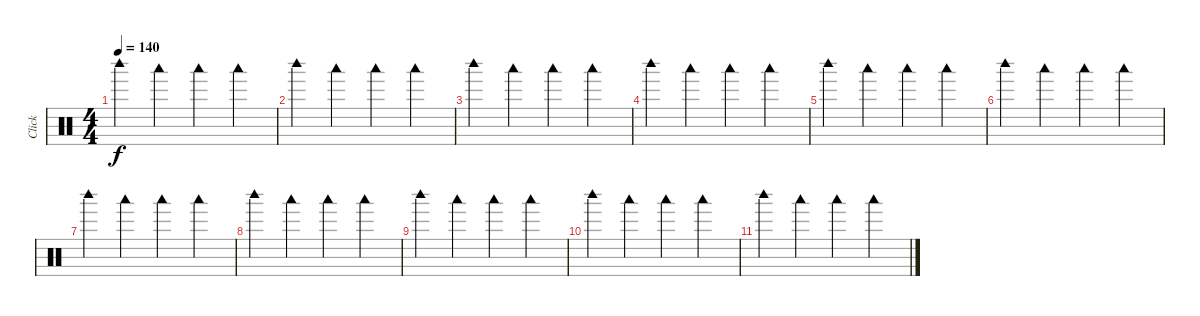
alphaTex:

\track ("Click" "Click") {mute instrument percussion}
\staff {score}
\articulation defaults
\ts (4 4)
\tempo 140
\clef neutral
\ks c "Woodblock high (hit)".4{dy f} "Woodblock low (hit)".4 "Woodblock low (hit)".4 "Woodblock low (hit)".4
|
"Woodblock high (hit)".4 "Woodblock low (hit)".4 "Woodblock low (hit)".4 "Woodblock low (hit)".4 |
"Woodblock high (hit)".4 "Woodblock low (hit)".4 "Woodblock low (hit)".4 "Woodblock low (hit)".4 |
"Woodblock high (hit)".4 "Woodblock low (hit)".4 "Woodblock low (hit)".4 "Woodblock low (hit)".4 |
"Woodblock high (hit)".4 "Woodblock low (hit)".4 "Woodblock low (hit)".4 "Woodblock low (hit)".4 |
"Woodblock high (hit)".4 "Woodblock low (hit)".4 "Woodblock low (hit)".4 "Woodblock low (hit)".4 |
"Woodblock high (hit)".4 "Woodblock low (hit)".4 "Woodblock low (hit)".4 "Woodblock low (hit)".4 |
"Woodblock high (hit)".4 "Woodblock low (hit)".4 "Woodblock low (hit)".4 "Woodblock low (hit)".4 |
"Woodblock high (hit)".4 "Woodblock low (hit)".4 "Woodblock low (hit)".4 "Woodblock low (hit)".4 |
"Woodblock high (hit)".4 "Woodblock low (hit)".4 "Woodblock low (hit)".4 "Woodblock low (hit)".4 |
"Woodblock high (hit)".4 "Woodblock low (hit)".4 "Woodblock low (hit)".4 "Woodblock low (hit)".4
